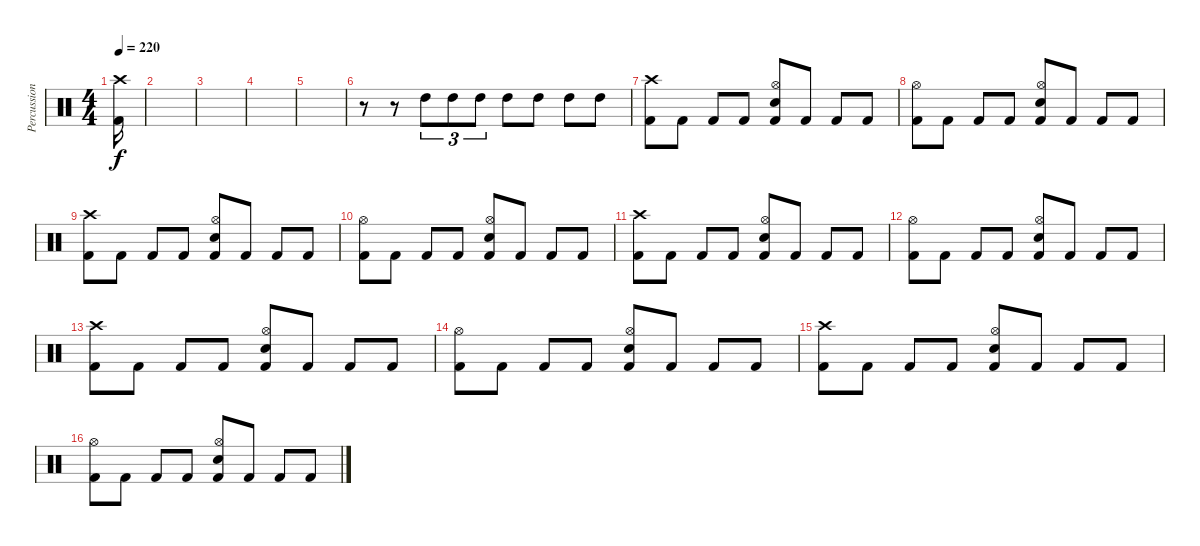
\track ("Percussion" "Percussion") {instrument percussion}
\staff {score}
\articulation defaults
\ts (4 4)
\tempo 220
\clef neutral
\ks c
("Crash high (hit)" "Kick (hit) 2").16{dy f} |
|
|
|
|
r.8 r.8 "High Tom (hit)".8{tu (3 2)} "High Tom (hit)".8{tu (3 2)} "High Tom (hit)".8{tu (3 2)} "High Tom (hit)".8 "High Tom (hit)".8 "High Tom (hit)".8 "High Tom (hit)".8 |
("Crash high (hit)" "Kick (hit) 2").8 "Kick (hit) 2".8 "Kick (hit) 2".8 "Kick (hit) 2".8 ("Hi-Hat (open)" "Electric Snare (hit)" "Kick (hit) 2").8 "Kick (hit) 2".8 "Kick (hit) 2".8 "Kick (hit) 2".8 |
("Hi-Hat (open)" "Kick (hit) 2").8 "Kick (hit) 2".8 "Kick (hit) 2".8 "Kick (hit) 2".8 ("Hi-Hat (open)" "Electric Snare (hit)" "Kick (hit) 2").8 "Kick (hit) 2".8 "Kick (hit) 2".8 "Kick (hit) 2".8 |
("Crash high (hit)" "Kick (hit) 2").8 "Kick (hit) 2".8 "Kick (hit) 2".8 "Kick (hit) 2".8 ("Hi-Hat (open)" "Electric Snare (hit)" "Kick (hit) 2").8 "Kick (hit) 2".8 "Kick (hit) 2".8 "Kick (hit) 2".8 |
("Hi-Hat (open)" "Kick (hit) 2").8 "Kick (hit) 2".8 "Kick (hit) 2".8 "Kick (hit) 2".8 ("Hi-Hat (open)" "Electric Snare (hit)" "Kick (hit) 2").8 "Kick (hit) 2".8 "Kick (hit) 2".8 "Kick (hit) 2".8 |
("Crash high (hit)" "Kick (hit) 2").8 "Kick (hit) 2".8 "Kick (hit) 2".8 "Kick (hit) 2".8 ("Hi-Hat (open)" "Electric Snare (hit)" "Kick (hit) 2").8 "Kick (hit) 2".8 "Kick (hit) 2".8 "Kick (hit) 2".8 |
("Hi-Hat (open)" "Kick (hit) 2").8 "Kick (hit) 2".8 "Kick (hit) 2".8 "Kick (hit) 2".8 ("Hi-Hat (open)" "Electric Snare (hit)" "Kick (hit) 2").8 "Kick (hit) 2".8 "Kick (hit) 2".8 "Kick (hit) 2".8 |
("Crash high (hit)" "Kick (hit) 2").8 "Kick (hit) 2".8 "Kick (hit) 2".8 "Kick (hit) 2".8 ("Hi-Hat (open)" "Electric Snare (hit)" "Kick (hit) 2").8 "Kick (hit) 2".8 "Kick (hit) 2".8 "Kick (hit) 2".8 |
("Hi-Hat (open)" "Kick (hit) 2").8 "Kick (hit) 2".8 "Kick (hit) 2".8 "Kick (hit) 2".8 ("Hi-Hat (open)" "Electric Snare (hit)" "Kick (hit) 2").8 "Kick (hit) 2".8 "Kick (hit) 2".8 "Kick (hit) 2".8 |
("Crash high (hit)" "Kick (hit) 2").8 "Kick (hit) 2".8 "Kick (hit) 2".8 "Kick (hit) 2".8 ("Hi-Hat (open)" "Electric Snare (hit)" "Kick (hit) 2").8 "Kick (hit) 2".8 "Kick (hit) 2".8 "Kick (hit) 2".8 |
("Hi-Hat (open)" "Kick (hit) 2").8 "Kick (hit) 2".8 "Kick (hit) 2".8 "Kick (hit) 2".8 ("Hi-Hat (open)" "Electric Snare (hit)" "Kick (hit) 2").8 "Kick (hit) 2".8 "Kick (hit) 2".8 "Kick (hit) 2".8
